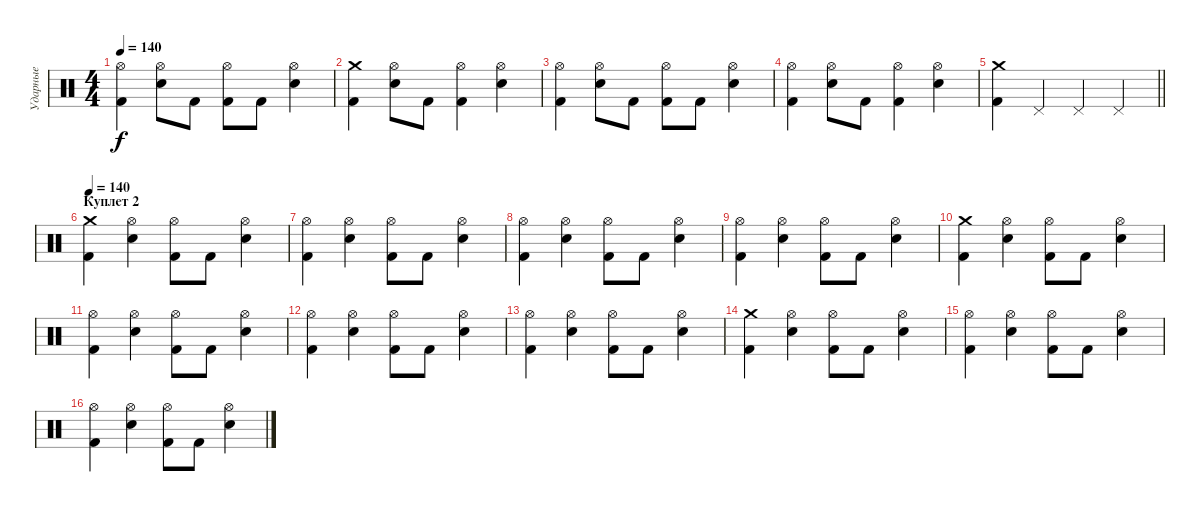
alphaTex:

\track ("Ударные" "Ударные") {instrument percussion}
\staff {score}
\articulation defaults
\ts (4 4)
\tempo 140
\clef neutral
\ks c
("Hi-Hat (open)" "Kick (hit) 2").4{dy f} ("Hi-Hat (open)" "Snare (hit) 2").8 "Kick (hit) 2".8 ("Kick (hit) 2" "Hi-Hat (open)").8 "Kick (hit) 2".8 ("Snare (hit) 2" "Hi-Hat (open)").4 |
("Kick (hit) 2" "Crash medium (hit)").4 ("Hi-Hat (open)" "Snare (hit) 2").8 "Kick (hit) 2".8 ("Hi-Hat (open)" "Kick (hit) 2").4 ("Snare (hit) 2" "Hi-Hat (open)").4 |
("Hi-Hat (open)" "Kick (hit) 2").4 ("Hi-Hat (open)" "Snare (hit) 2").8 "Kick (hit) 2".8 ("Kick (hit) 2" "Hi-Hat (open)").8 "Kick (hit) 2".8 ("Snare (hit) 2" "Hi-Hat (open)").4 |
("Kick (hit) 2" "Hi-Hat (open)").4 ("Hi-Hat (open)" "Snare (hit) 2").8 "Kick (hit) 2".8 ("Hi-Hat (open)" "Kick (hit) 2").4 ("Snare (hit) 2" "Hi-Hat (open)").4 |
\barLineRight lightlight
("Kick (hit) 2" "Crash medium (hit)").4 "Pedal Hi-Hat (hit)".4 "Pedal Hi-Hat (hit)".4 "Pedal Hi-Hat (hit)".4 |
\section ("" "Куплет 2 ")
\tempo 140
("Crash medium (hit)" "Kick (hit) 2").4 ("Hi-Hat (open)" "Snare (hit) 2").4 ("Hi-Hat (open)" "Kick (hit) 2").8 "Kick (hit) 2".8 ("Snare (hit) 2" "Hi-Hat (open)").4 |
("Hi-Hat (open)" "Kick (hit) 2").4 ("Hi-Hat (open)" "Snare (hit) 2").4 ("Hi-Hat (open)" "Kick (hit) 2").8 "Kick (hit) 2".8 ("Snare (hit) 2" "Hi-Hat (open)").4 |
("Hi-Hat (open)" "Kick (hit) 2").4 ("Hi-Hat (open)" "Snare (hit) 2").4 ("Hi-Hat (open)" "Kick (hit) 2").8 "Kick (hit) 2".8 ("Snare (hit) 2" "Hi-Hat (open)").4 |
("Hi-Hat (open)" "Kick (hit) 2").4 ("Hi-Hat (open)" "Snare (hit) 2").4 ("Hi-Hat (open)" "Kick (hit) 2").8 "Kick (hit) 2".8 ("Snare (hit) 2" "Hi-Hat (open)").4 |
("Crash medium (hit)" "Kick (hit) 2").4 ("Hi-Hat (open)" "Snare (hit) 2").4 ("Hi-Hat (open)" "Kick (hit) 2").8 "Kick (hit) 2".8 ("Snare (hit) 2" "Hi-Hat (open)").4 |
("Hi-Hat (open)" "Kick (hit) 2").4 ("Hi-Hat (open)" "Snare (hit) 2").4 ("Hi-Hat (open)" "Kick (hit) 2").8 "Kick (hit) 2".8 ("Snare (hit) 2" "Hi-Hat (open)").4 |
("Hi-Hat (open)" "Kick (hit) 2").4 ("Hi-Hat (open)" "Snare (hit) 2").4 ("Hi-Hat (open)" "Kick (hit) 2").8 "Kick (hit) 2".8 ("Snare (hit) 2" "Hi-Hat (open)").4 |
("Hi-Hat (open)" "Kick (hit) 2").4 ("Hi-Hat (open)" "Snare (hit) 2").4 ("Hi-Hat (open)" "Kick (hit) 2").8 "Kick (hit) 2".8 ("Snare (hit) 2" "Hi-Hat (open)").4 |
("Crash medium (hit)" "Kick (hit) 2").4 ("Hi-Hat (open)" "Snare (hit) 2").4 ("Hi-Hat (open)" "Kick (hit) 2").8 "Kick (hit) 2".8 ("Snare (hit) 2" "Hi-Hat (open)").4 |
("Hi-Hat (open)" "Kick (hit) 2").4 ("Hi-Hat (open)" "Snare (hit) 2").4 ("Hi-Hat (open)" "Kick (hit) 2").8 "Kick (hit) 2".8 ("Snare (hit) 2" "Hi-Hat (open)").4 |
("Hi-Hat (open)" "Kick (hit) 2").4 ("Hi-Hat (open)" "Snare (hit) 2").4 ("Hi-Hat (open)" "Kick (hit) 2").8 "Kick (hit) 2".8 ("Snare (hit) 2" "Hi-Hat (open)").4
